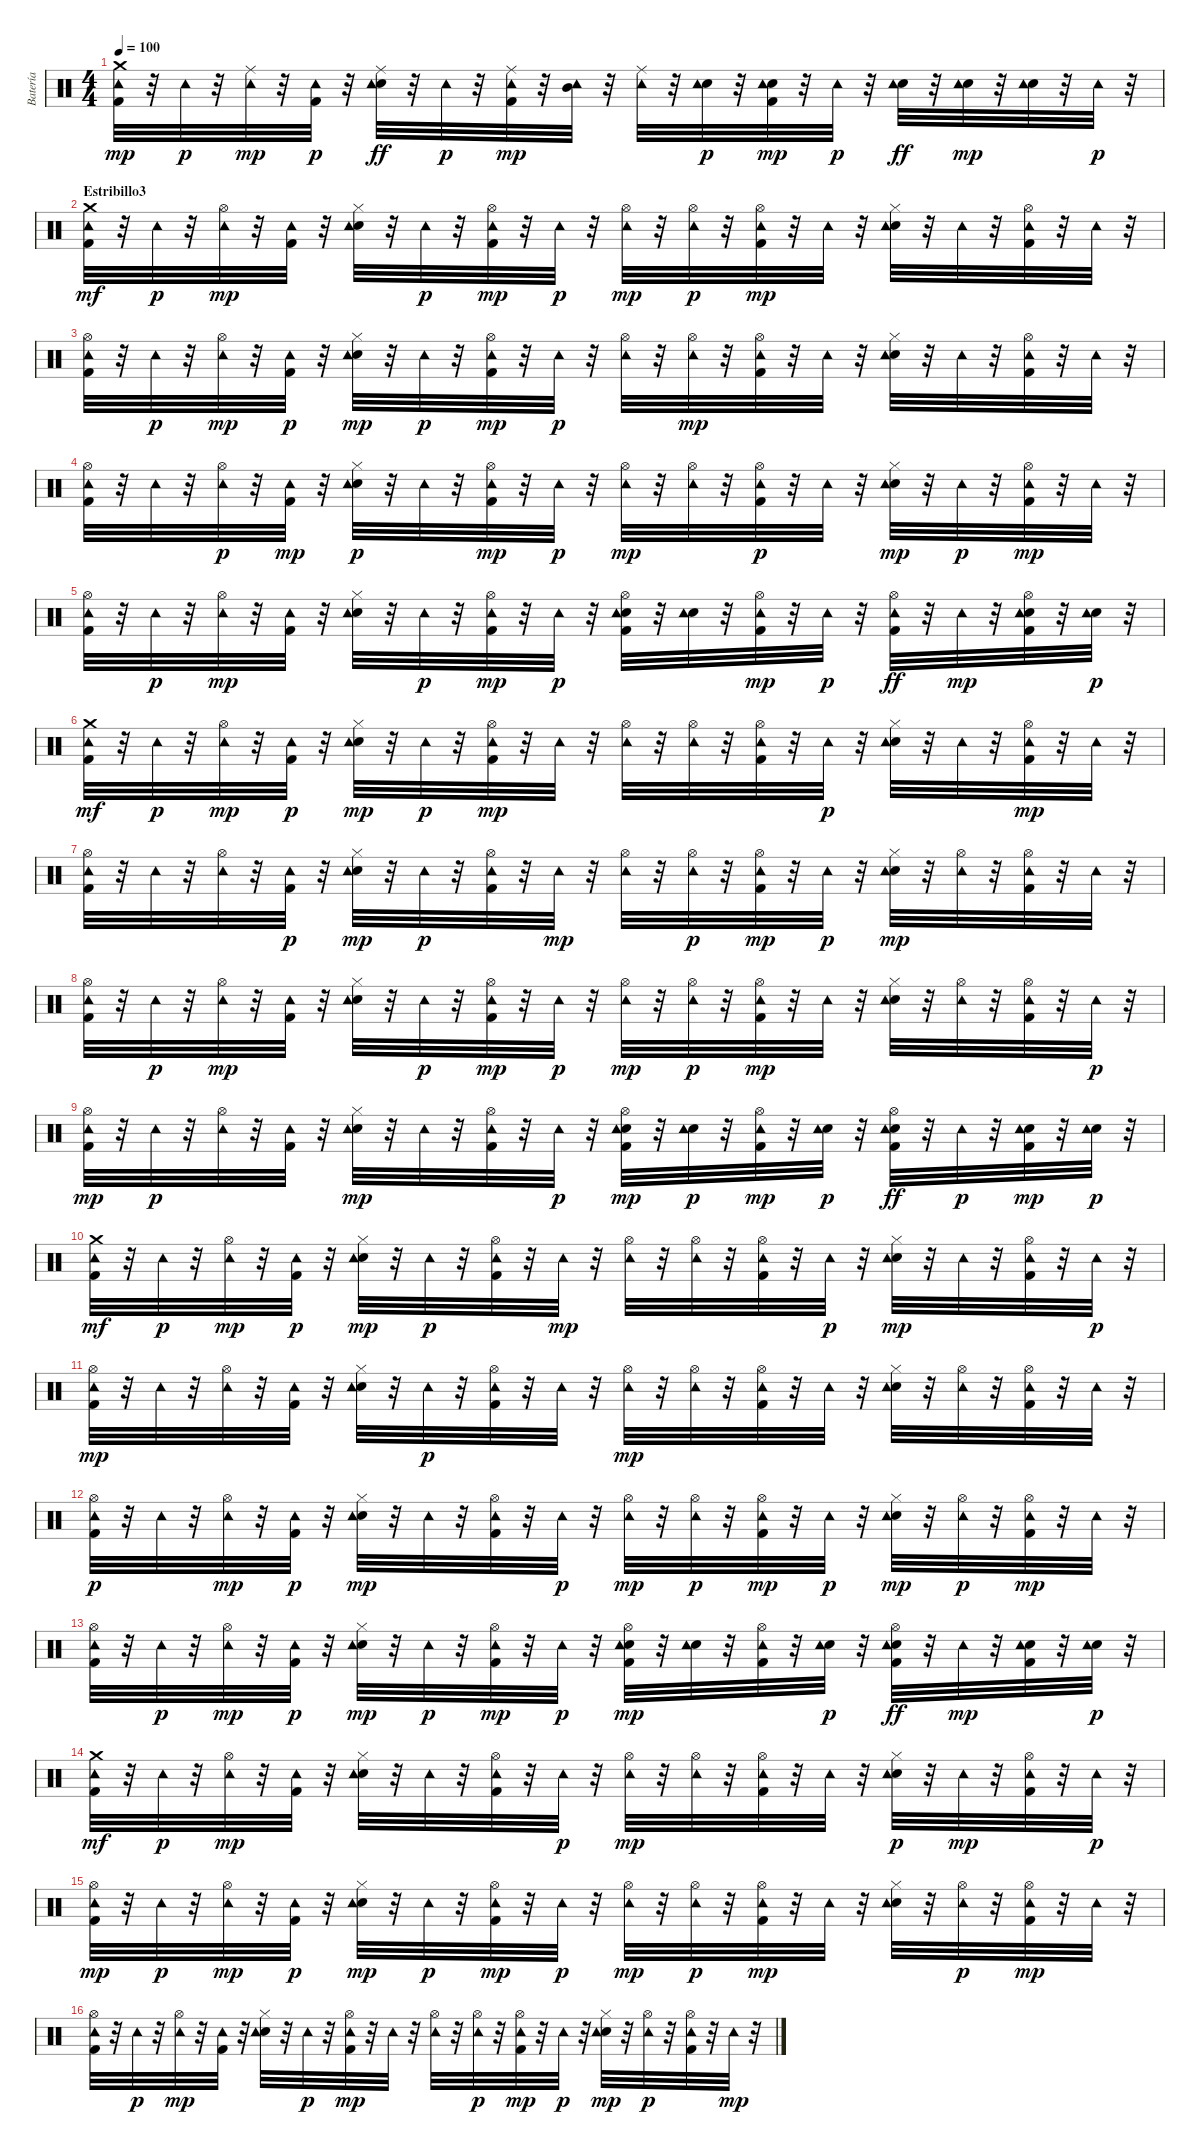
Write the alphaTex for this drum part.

\track ("Batería" "Batería") {instrument percussion}
\staff {score}
\articulation defaults
\ts (4 4)
\tempo 100
\clef neutral
\ks c
("Kick (hit) 2" "Tambourine (hit)" "Crash medium (hit)").32{dy mp} r.32 "Tambourine (hit)".32{dy p} r.32 ("Ride (middle)" "Tambourine (hit)").32{dy mp} r.32 ("Kick (hit) 2" "Tambourine (hit)").32{dy p} r.32 ("Electric Snare (hit)" "Ride (middle)" "Tambourine (hit)").32{dy ff} r.32 "Tambourine (hit)".32{dy p} r.32 ("Kick (hit) 2" "Ride (middle)" "Tambourine (hit)").32{dy mp} r.32 ("Mid Tom (hit)" "Tambourine (hit)").32 r.32 ("Ride (middle)" "Tambourine (hit)").32 r.32 ("Electric Snare (hit)" "Tambourine (hit)").32{dy p} r.32 ("Kick (hit) 2" "Electric Snare (hit)" "Tambourine (hit)").32{dy mp} r.32 "Tambourine (hit)".32{dy p} r.32 ("Electric Snare (hit)" "Tambourine (hit)").32{dy ff} r.32 ("Electric Snare (hit)" "Tambourine (hit)").32{dy mp} r.32 ("Electric Snare (hit)" "Tambourine (hit)").32 r.32 "Tambourine (hit)".32{dy p} r.32 |
\section ("" "Estribillo3")
("Kick (hit) 2" "Tambourine (hit)" "Crash medium (hit)").32{dy mf} r.32 "Tambourine (hit)".32{dy p} r.32 ("Hi-Hat (open)" "Tambourine (hit)").32{dy mp} r.32 ("Kick (hit) 2" "Tambourine (hit)").32 r.32 ("Electric Snare (hit)" "Hi-Hat (closed)" "Tambourine (hit)").32 r.32 "Tambourine (hit)".32{dy p} r.32 ("Kick (hit) 2" "Hi-Hat (open)" "Tambourine (hit)").32{dy mp} r.32 "Tambourine (hit)".32{dy p} r.32 ("Hi-Hat (open)" "Tambourine (hit)").32{dy mp} r.32 ("Hi-Hat (open)" "Tambourine (hit)").32{dy p} r.32 ("Kick (hit) 2" "Hi-Hat (open)" "Tambourine (hit)").32{dy mp} r.32 "Tambourine (hit)".32 r.32 ("Electric Snare (hit)" "Hi-Hat (closed)" "Tambourine (hit)").32 r.32 "Tambourine (hit)".32 r.32 ("Kick (hit) 2" "Hi-Hat (open)" "Tambourine (hit)").32 r.32 "Tambourine (hit)".32 r.32 |
("Kick (hit) 2" "Hi-Hat (open)" "Tambourine (hit)").32 r.32 "Tambourine (hit)".32{dy p} r.32 ("Hi-Hat (open)" "Tambourine (hit)").32{dy mp} r.32 ("Kick (hit) 2" "Tambourine (hit)").32{dy p} r.32 ("Electric Snare (hit)" "Hi-Hat (closed)" "Tambourine (hit)").32{dy mp} r.32 "Tambourine (hit)".32{dy p} r.32 ("Kick (hit) 2" "Hi-Hat (open)" "Tambourine (hit)").32{dy mp} r.32 "Tambourine (hit)".32{dy p} r.32 ("Hi-Hat (open)" "Tambourine (hit)").32 r.32 ("Hi-Hat (open)" "Tambourine (hit)").32{dy mp} r.32 ("Kick (hit) 2" "Hi-Hat (open)" "Tambourine (hit)").32 r.32 "Tambourine (hit)".32 r.32 ("Electric Snare (hit)" "Hi-Hat (closed)" "Tambourine (hit)").32 r.32 "Tambourine (hit)".32 r.32 ("Kick (hit) 2" "Hi-Hat (open)" "Tambourine (hit)").32 r.32 "Tambourine (hit)".32 r.32 |
("Kick (hit) 2" "Hi-Hat (open)" "Tambourine (hit)").32 r.32 "Tambourine (hit)".32 r.32 ("Hi-Hat (open)" "Tambourine (hit)").32{dy p} r.32 ("Kick (hit) 2" "Tambourine (hit)").32{dy mp} r.32 ("Electric Snare (hit)" "Hi-Hat (closed)" "Tambourine (hit)").32{dy p} r.32 "Tambourine (hit)".32 r.32 ("Kick (hit) 2" "Hi-Hat (open)" "Tambourine (hit)").32{dy mp} r.32 "Tambourine (hit)".32{dy p} r.32 ("Hi-Hat (open)" "Tambourine (hit)").32{dy mp} r.32 ("Hi-Hat (open)" "Tambourine (hit)").32 r.32 ("Kick (hit) 2" "Hi-Hat (open)" "Tambourine (hit)").32{dy p} r.32 "Tambourine (hit)".32 r.32 ("Electric Snare (hit)" "Hi-Hat (closed)" "Tambourine (hit)").32{dy mp} r.32 "Tambourine (hit)".32{dy p} r.32 ("Kick (hit) 2" "Hi-Hat (open)" "Tambourine (hit)").32{dy mp} r.32 "Tambourine (hit)".32 r.32 |
("Kick (hit) 2" "Hi-Hat (open)" "Tambourine (hit)").32 r.32 "Tambourine (hit)".32{dy p} r.32 ("Hi-Hat (open)" "Tambourine (hit)").32{dy mp} r.32 ("Kick (hit) 2" "Tambourine (hit)").32 r.32 ("Electric Snare (hit)" "Hi-Hat (closed)" "Tambourine (hit)").32 r.32 "Tambourine (hit)".32{dy p} r.32 ("Kick (hit) 2" "Hi-Hat (open)" "Tambourine (hit)").32{dy mp} r.32 "Tambourine (hit)".32{dy p} r.32 ("Kick (hit) 2" "Electric Snare (hit)" "Hi-Hat (open)" "Tambourine (hit)").32 r.32 ("Electric Snare (hit)" "Tambourine (hit)").32 r.32 ("Kick (hit) 2" "Hi-Hat (open)" "Tambourine (hit)").32{dy mp} r.32 "Tambourine (hit)".32{dy p} r.32 ("Kick (hit) 2" "Hi-Hat (open)" "Tambourine (hit)").32{dy ff} r.32 "Tambourine (hit)".32{dy mp} r.32 ("Kick (hit) 2" "Electric Snare (hit)" "Hi-Hat (open)" "Tambourine (hit)").32 r.32 ("Electric Snare (hit)" "Tambourine (hit)").32{dy p} r.32 |
("Kick (hit) 2" "Tambourine (hit)" "Crash medium (hit)").32{dy mf} r.32 "Tambourine (hit)".32{dy p} r.32 ("Hi-Hat (open)" "Tambourine (hit)").32{dy mp} r.32 ("Kick (hit) 2" "Tambourine (hit)").32{dy p} r.32 ("Electric Snare (hit)" "Hi-Hat (closed)" "Tambourine (hit)").32{dy mp} r.32 "Tambourine (hit)".32{dy p} r.32 ("Kick (hit) 2" "Hi-Hat (open)" "Tambourine (hit)").32{dy mp} r.32 "Tambourine (hit)".32 r.32 ("Hi-Hat (open)" "Tambourine (hit)").32 r.32 ("Hi-Hat (open)" "Tambourine (hit)").32 r.32 ("Kick (hit) 2" "Hi-Hat (open)" "Tambourine (hit)").32 r.32 "Tambourine (hit)".32{dy p} r.32 ("Electric Snare (hit)" "Hi-Hat (closed)" "Tambourine (hit)").32 r.32 "Tambourine (hit)".32 r.32 ("Kick (hit) 2" "Hi-Hat (open)" "Tambourine (hit)").32{dy mp} r.32 "Tambourine (hit)".32 r.32 |
("Kick (hit) 2" "Hi-Hat (open)" "Tambourine (hit)").32 r.32 "Tambourine (hit)".32 r.32 ("Hi-Hat (open)" "Tambourine (hit)").32 r.32 ("Kick (hit) 2" "Tambourine (hit)").32{dy p} r.32 ("Electric Snare (hit)" "Hi-Hat (closed)" "Tambourine (hit)").32{dy mp} r.32 "Tambourine (hit)".32{dy p} r.32 ("Kick (hit) 2" "Hi-Hat (open)" "Tambourine (hit)").32 r.32 "Tambourine (hit)".32{dy mp} r.32 ("Hi-Hat (open)" "Tambourine (hit)").32 r.32 ("Hi-Hat (open)" "Tambourine (hit)").32{dy p} r.32 ("Kick (hit) 2" "Hi-Hat (open)" "Tambourine (hit)").32{dy mp} r.32 "Tambourine (hit)".32{dy p} r.32 ("Electric Snare (hit)" "Hi-Hat (closed)" "Tambourine (hit)").32{dy mp} r.32 ("Hi-Hat (open)" "Tambourine (hit)").32 r.32 ("Kick (hit) 2" "Hi-Hat (open)" "Tambourine (hit)").32 r.32 "Tambourine (hit)".32 r.32 |
("Kick (hit) 2" "Hi-Hat (open)" "Tambourine (hit)").32 r.32 "Tambourine (hit)".32{dy p} r.32 ("Hi-Hat (open)" "Tambourine (hit)").32{dy mp} r.32 ("Kick (hit) 2" "Tambourine (hit)").32 r.32 ("Electric Snare (hit)" "Hi-Hat (closed)" "Tambourine (hit)").32 r.32 "Tambourine (hit)".32{dy p} r.32 ("Kick (hit) 2" "Hi-Hat (open)" "Tambourine (hit)").32{dy mp} r.32 "Tambourine (hit)".32{dy p} r.32 ("Hi-Hat (open)" "Tambourine (hit)").32{dy mp} r.32 ("Hi-Hat (open)" "Tambourine (hit)").32{dy p} r.32 ("Kick (hit) 2" "Hi-Hat (open)" "Tambourine (hit)").32{dy mp} r.32 "Tambourine (hit)".32 r.32 ("Electric Snare (hit)" "Hi-Hat (closed)" "Tambourine (hit)").32 r.32 ("Hi-Hat (open)" "Tambourine (hit)").32 r.32 ("Kick (hit) 2" "Hi-Hat (open)" "Tambourine (hit)").32 r.32 "Tambourine (hit)".32{dy p} r.32 |
("Kick (hit) 2" "Hi-Hat (open)" "Tambourine (hit)").32{dy mp} r.32 "Tambourine (hit)".32{dy p} r.32 ("Hi-Hat (open)" "Tambourine (hit)").32 r.32 ("Kick (hit) 2" "Tambourine (hit)").32 r.32 ("Electric Snare (hit)" "Hi-Hat (closed)" "Tambourine (hit)").32{dy mp} r.32 "Tambourine (hit)".32 r.32 ("Kick (hit) 2" "Hi-Hat (open)" "Tambourine (hit)").32 r.32 "Tambourine (hit)".32{dy p} r.32 ("Kick (hit) 2" "Electric Snare (hit)" "Hi-Hat (open)" "Tambourine (hit)").32{dy mp} r.32 ("Electric Snare (hit)" "Tambourine (hit)").32{dy p} r.32 ("Kick (hit) 2" "Hi-Hat (open)" "Tambourine (hit)").32{dy mp} r.32 ("Electric Snare (hit)" "Tambourine (hit)").32{dy p} r.32 ("Kick (hit) 2" "Electric Snare (hit)" "Hi-Hat (open)" "Tambourine (hit)").32{dy ff} r.32 "Tambourine (hit)".32{dy p} r.32 ("Kick (hit) 2" "Electric Snare (hit)" "Tambourine (hit)").32{dy mp} r.32 ("Electric Snare (hit)" "Tambourine (hit)").32{dy p} r.32 |
("Kick (hit) 2" "Tambourine (hit)" "Crash medium (hit)").32{dy mf} r.32 "Tambourine (hit)".32{dy p} r.32 ("Hi-Hat (open)" "Tambourine (hit)").32{dy mp} r.32 ("Kick (hit) 2" "Tambourine (hit)").32{dy p} r.32 ("Electric Snare (hit)" "Hi-Hat (closed)" "Tambourine (hit)").32{dy mp} r.32 "Tambourine (hit)".32{dy p} r.32 ("Kick (hit) 2" "Hi-Hat (open)" "Tambourine (hit)").32 r.32 "Tambourine (hit)".32{dy mp} r.32 ("Hi-Hat (open)" "Tambourine (hit)").32 r.32 ("Hi-Hat (open)" "Tambourine (hit)").32 r.32 ("Kick (hit) 2" "Hi-Hat (open)" "Tambourine (hit)").32 r.32 "Tambourine (hit)".32{dy p} r.32 ("Electric Snare (hit)" "Hi-Hat (closed)" "Tambourine (hit)").32{dy mp} r.32 "Tambourine (hit)".32 r.32 ("Kick (hit) 2" "Hi-Hat (open)" "Tambourine (hit)").32 r.32 "Tambourine (hit)".32{dy p} r.32 |
("Kick (hit) 2" "Hi-Hat (open)" "Tambourine (hit)").32{dy mp} r.32 "Tambourine (hit)".32 r.32 ("Hi-Hat (open)" "Tambourine (hit)").32 r.32 ("Kick (hit) 2" "Tambourine (hit)").32 r.32 ("Electric Snare (hit)" "Hi-Hat (closed)" "Tambourine (hit)").32 r.32 "Tambourine (hit)".32{dy p} r.32 ("Kick (hit) 2" "Hi-Hat (open)" "Tambourine (hit)").32 r.32 "Tambourine (hit)".32 r.32 ("Hi-Hat (open)" "Tambourine (hit)").32{dy mp} r.32 ("Hi-Hat (open)" "Tambourine (hit)").32 r.32 ("Kick (hit) 2" "Hi-Hat (open)" "Tambourine (hit)").32 r.32 "Tambourine (hit)".32 r.32 ("Electric Snare (hit)" "Hi-Hat (closed)" "Tambourine (hit)").32 r.32 ("Hi-Hat (open)" "Tambourine (hit)").32 r.32 ("Kick (hit) 2" "Hi-Hat (open)" "Tambourine (hit)").32 r.32 "Tambourine (hit)".32 r.32 |
("Kick (hit) 2" "Hi-Hat (open)" "Tambourine (hit)").32{dy p} r.32 "Tambourine (hit)".32 r.32 ("Hi-Hat (open)" "Tambourine (hit)").32{dy mp} r.32 ("Kick (hit) 2" "Tambourine (hit)").32{dy p} r.32 ("Electric Snare (hit)" "Hi-Hat (closed)" "Tambourine (hit)").32{dy mp} r.32 "Tambourine (hit)".32 r.32 ("Kick (hit) 2" "Hi-Hat (open)" "Tambourine (hit)").32 r.32 "Tambourine (hit)".32{dy p} r.32 ("Hi-Hat (open)" "Tambourine (hit)").32{dy mp} r.32 ("Hi-Hat (open)" "Tambourine (hit)").32{dy p} r.32 ("Kick (hit) 2" "Hi-Hat (open)" "Tambourine (hit)").32{dy mp} r.32 "Tambourine (hit)".32{dy p} r.32 ("Electric Snare (hit)" "Hi-Hat (closed)" "Tambourine (hit)").32{dy mp} r.32 ("Hi-Hat (open)" "Tambourine (hit)").32{dy p} r.32 ("Kick (hit) 2" "Hi-Hat (open)" "Tambourine (hit)").32{dy mp} r.32 "Tambourine (hit)".32 r.32 |
("Kick (hit) 2" "Hi-Hat (open)" "Tambourine (hit)").32 r.32 "Tambourine (hit)".32{dy p} r.32 ("Hi-Hat (open)" "Tambourine (hit)").32{dy mp} r.32 ("Kick (hit) 2" "Tambourine (hit)").32{dy p} r.32 ("Electric Snare (hit)" "Hi-Hat (closed)" "Tambourine (hit)").32{dy mp} r.32 "Tambourine (hit)".32{dy p} r.32 ("Kick (hit) 2" "Hi-Hat (open)" "Tambourine (hit)").32{dy mp} r.32 "Tambourine (hit)".32{dy p} r.32 ("Kick (hit) 2" "Electric Snare (hit)" "Hi-Hat (open)" "Tambourine (hit)").32{dy mp} r.32 ("Electric Snare (hit)" "Tambourine (hit)").32 r.32 ("Kick (hit) 2" "Hi-Hat (open)" "Tambourine (hit)").32 r.32 ("Electric Snare (hit)" "Tambourine (hit)").32{dy p} r.32 ("Kick (hit) 2" "Electric Snare (hit)" "Hi-Hat (open)" "Tambourine (hit)").32{dy ff} r.32 "Tambourine (hit)".32{dy mp} r.32 ("Kick (hit) 2" "Electric Snare (hit)" "Tambourine (hit)").32 r.32 ("Electric Snare (hit)" "Tambourine (hit)").32{dy p} r.32 |
("Kick (hit) 2" "Tambourine (hit)" "Crash medium (hit)").32{dy mf} r.32 "Tambourine (hit)".32{dy p} r.32 ("Hi-Hat (open)" "Tambourine (hit)").32{dy mp} r.32 ("Kick (hit) 2" "Tambourine (hit)").32 r.32 ("Electric Snare (hit)" "Hi-Hat (closed)" "Tambourine (hit)").32 r.32 "Tambourine (hit)".32 r.32 ("Kick (hit) 2" "Hi-Hat (open)" "Tambourine (hit)").32 r.32 "Tambourine (hit)".32{dy p} r.32 ("Hi-Hat (open)" "Tambourine (hit)").32{dy mp} r.32 ("Hi-Hat (open)" "Tambourine (hit)").32 r.32 ("Kick (hit) 2" "Hi-Hat (open)" "Tambourine (hit)").32 r.32 "Tambourine (hit)".32 r.32 ("Electric Snare (hit)" "Hi-Hat (closed)" "Tambourine (hit)").32{dy p} r.32 "Tambourine (hit)".32{dy mp} r.32 ("Kick (hit) 2" "Hi-Hat (open)" "Tambourine (hit)").32 r.32 "Tambourine (hit)".32{dy p} r.32 |
("Kick (hit) 2" "Hi-Hat (open)" "Tambourine (hit)").32{dy mp} r.32 "Tambourine (hit)".32{dy p} r.32 ("Hi-Hat (open)" "Tambourine (hit)").32{dy mp} r.32 ("Kick (hit) 2" "Tambourine (hit)").32{dy p} r.32 ("Electric Snare (hit)" "Hi-Hat (closed)" "Tambourine (hit)").32{dy mp} r.32 "Tambourine (hit)".32{dy p} r.32 ("Kick (hit) 2" "Hi-Hat (open)" "Tambourine (hit)").32{dy mp} r.32 "Tambourine (hit)".32{dy p} r.32 ("Hi-Hat (open)" "Tambourine (hit)").32{dy mp} r.32 ("Hi-Hat (open)" "Tambourine (hit)").32{dy p} r.32 ("Kick (hit) 2" "Hi-Hat (open)" "Tambourine (hit)").32{dy mp} r.32 "Tambourine (hit)".32 r.32 ("Electric Snare (hit)" "Hi-Hat (closed)" "Tambourine (hit)").32 r.32 ("Hi-Hat (open)" "Tambourine (hit)").32{dy p} r.32 ("Kick (hit) 2" "Hi-Hat (open)" "Tambourine (hit)").32{dy mp} r.32 "Tambourine (hit)".32 r.32 |
("Kick (hit) 2" "Hi-Hat (open)" "Tambourine (hit)").32 r.32 "Tambourine (hit)".32{dy p} r.32 ("Hi-Hat (open)" "Tambourine (hit)").32{dy mp} r.32 ("Kick (hit) 2" "Tambourine (hit)").32 r.32 ("Electric Snare (hit)" "Hi-Hat (closed)" "Tambourine (hit)").32 r.32 "Tambourine (hit)".32{dy p} r.32 ("Kick (hit) 2" "Hi-Hat (open)" "Tambourine (hit)").32{dy mp} r.32 "Tambourine (hit)".32 r.32 ("Hi-Hat (open)" "Tambourine (hit)").32 r.32 ("Hi-Hat (open)" "Tambourine (hit)").32{dy p} r.32 ("Kick (hit) 2" "Hi-Hat (open)" "Tambourine (hit)").32{dy mp} r.32 "Tambourine (hit)".32{dy p} r.32 ("Electric Snare (hit)" "Hi-Hat (closed)" "Tambourine (hit)").32{dy mp} r.32 ("Hi-Hat (open)" "Tambourine (hit)").32{dy p} r.32 ("Kick (hit) 2" "Hi-Hat (open)" "Tambourine (hit)").32 r.32 "Tambourine (hit)".32{dy mp} r.32
